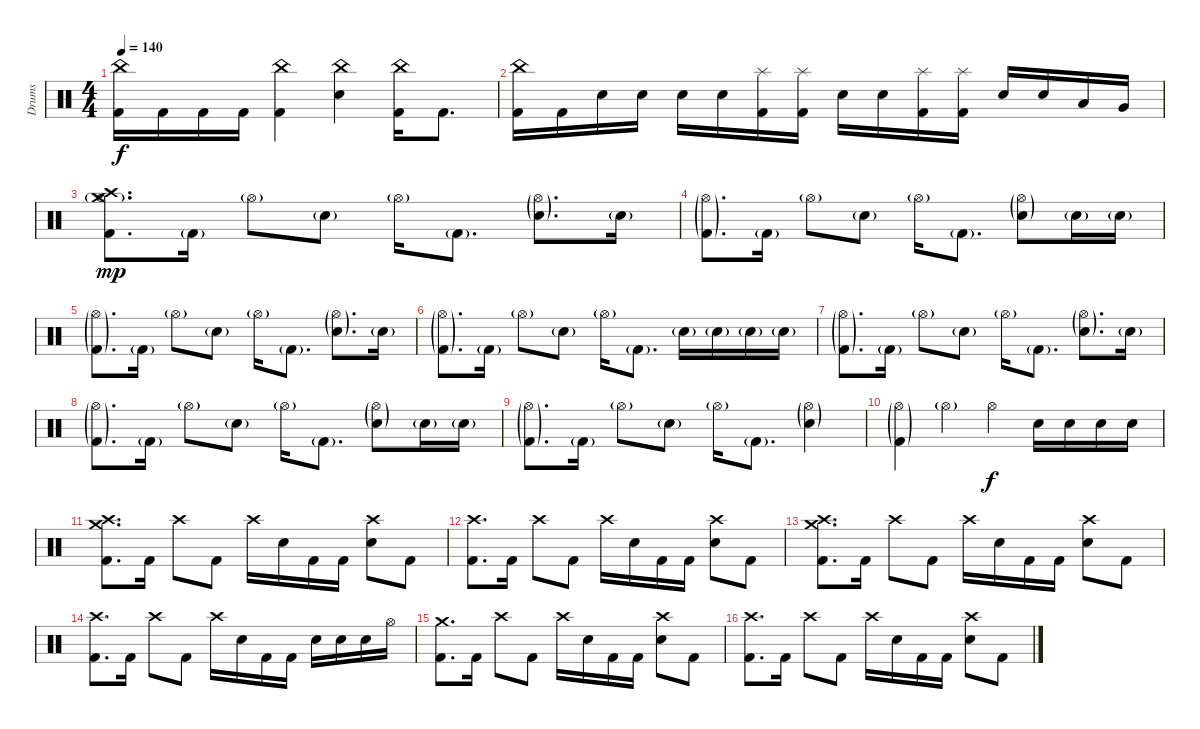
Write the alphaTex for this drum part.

\track ("Drums" "Drums") {instrument percussion}
\staff {score}
\articulation defaults
\ts (4 4)
\tempo 140
\clef neutral
\ks c
("China (hit)" "Kick (hit) 2").16{dy f} "Kick (hit) 2".16 "Kick (hit) 2".16 "Kick (hit) 2".16 ("China (hit)" "Kick (hit) 2").4 ("China (hit)" "Electric Snare (hit)").4 ("China (hit)" "Kick (hit) 2").16 "Kick (hit) 2".8{d} |
("China (hit)" "Kick (hit) 2").16 "Kick (hit) 2".16 "Electric Snare (hit)".16 "Electric Snare (hit)".16 "Electric Snare (hit)".16 "Electric Snare (hit)".16 ("Splash (hit)" "Kick (hit) 2").16 ("Splash (hit)" "Kick (hit) 2").16 "Electric Snare (hit)".16 "Electric Snare (hit)".16 ("Splash (hit)" "Kick (hit) 2").16 ("Splash (hit)" "Kick (hit) 2").16 "Electric Snare (hit)".16 "Electric Snare (hit)".16 "Low Tom (hit)".16 "Very Low Tom (hit)".16 |
("Hi-Hat (open)"{g} "Crash medium (hit)" "Crash high (hit)" "Kick (hit) 2").8{d dy mp} "Kick (hit) 2"{g}.16 "Hi-Hat (open)"{g}.8 "Electric Snare (hit)"{g}.8 "Hi-Hat (open)"{g}.16 "Kick (hit) 2"{g}.8{d} ("Hi-Hat (open)"{g} "Electric Snare (hit)"{g}).8{d} "Electric Snare (hit)"{g}.16 |
("Hi-Hat (open)"{g} "Kick (hit) 2"{g}).8{d} "Kick (hit) 2"{g}.16 "Hi-Hat (open)"{g}.8 "Electric Snare (hit)"{g}.8 "Hi-Hat (open)"{g}.16 "Kick (hit) 2"{g}.8{d} ("Hi-Hat (open)"{g} "Electric Snare (hit)"{g}).8 "Electric Snare (hit)"{g}.16 "Electric Snare (hit)"{g}.16 |
("Hi-Hat (open)"{g} "Kick (hit) 2"{g}).8{d} "Kick (hit) 2"{g}.16 "Hi-Hat (open)"{g}.8 "Electric Snare (hit)"{g}.8 "Hi-Hat (open)"{g}.16 "Kick (hit) 2"{g}.8{d} ("Hi-Hat (open)"{g} "Electric Snare (hit)"{g}).8{d} "Electric Snare (hit)"{g}.16 |
("Hi-Hat (open)"{g} "Kick (hit) 2"{g}).8{d} "Kick (hit) 2"{g}.16 "Hi-Hat (open)"{g}.8 "Electric Snare (hit)"{g}.8 "Hi-Hat (open)"{g}.16 "Kick (hit) 2"{g}.8{d} "Electric Snare (hit)"{g}.16 "Electric Snare (hit)"{g}.16 "Electric Snare (hit)"{g}.16 "Electric Snare (hit)"{g}.16 |
("Hi-Hat (open)"{g} "Kick (hit) 2"{g}).8{d} "Kick (hit) 2"{g}.16 "Hi-Hat (open)"{g}.8 "Electric Snare (hit)"{g}.8 "Hi-Hat (open)"{g}.16 "Kick (hit) 2"{g}.8{d} ("Hi-Hat (open)"{g} "Electric Snare (hit)"{g}).8{d} "Electric Snare (hit)"{g}.16 |
("Hi-Hat (open)"{g} "Kick (hit) 2"{g}).8{d} "Kick (hit) 2"{g}.16 "Hi-Hat (open)"{g}.8 "Electric Snare (hit)"{g}.8 "Hi-Hat (open)"{g}.16 "Kick (hit) 2"{g}.8{d} ("Hi-Hat (open)"{g} "Electric Snare (hit)"{g}).8 "Electric Snare (hit)"{g}.16 "Electric Snare (hit)"{g}.16 |
("Hi-Hat (open)"{g} "Kick (hit) 2"{g}).8{d} "Kick (hit) 2"{g}.16 "Hi-Hat (open)"{g}.8 "Electric Snare (hit)"{g}.8 "Hi-Hat (open)"{g}.16 "Kick (hit) 2"{g}.8{d} ("Hi-Hat (open)"{g} "Electric Snare (hit)"{g}).4 |
("Hi-Hat (open)"{g} "Kick (hit) 2"{g}).4 "Hi-Hat (open)"{g}.4 "Hi-Hat (open)".4{dy f} "Electric Snare (hit)".16 "Electric Snare (hit)".16 "Electric Snare (hit)".16 "Electric Snare (hit)".16 |
("Crash medium (hit)" "Crash high (hit)" "Kick (hit) 2").8{d} "Kick (hit) 2".16 "Crash high (hit)".8 "Kick (hit) 2".8 "Crash high (hit)".16 "Electric Snare (hit)".16 "Kick (hit) 2".16 "Kick (hit) 2".16 ("Crash high (hit)" "Electric Snare (hit)").8 "Kick (hit) 2".8 |
("Crash high (hit)" "Kick (hit) 2").8{d} "Kick (hit) 2".16 "Crash high (hit)".8 "Kick (hit) 2".8 "Crash high (hit)".16 "Electric Snare (hit)".16 "Kick (hit) 2".16 "Kick (hit) 2".16 ("Crash high (hit)" "Electric Snare (hit)").8 "Kick (hit) 2".8 |
("Crash medium (hit)" "Crash high (hit)" "Kick (hit) 2").8{d} "Kick (hit) 2".16 "Crash high (hit)".8 "Kick (hit) 2".8 "Crash high (hit)".16 "Electric Snare (hit)".16 "Kick (hit) 2".16 "Kick (hit) 2".16 ("Crash high (hit)" "Electric Snare (hit)").8 "Kick (hit) 2".8 |
("Crash high (hit)" "Kick (hit) 2").8{d} "Kick (hit) 2".16 "Crash high (hit)".8 "Kick (hit) 2".8 "Crash high (hit)".16 "Electric Snare (hit)".16 "Kick (hit) 2".16 "Kick (hit) 2".16 "Electric Snare (hit)".16 "Electric Snare (hit)".16 "Electric Snare (hit)".16 "Hi-Hat (open)".16 |
("Crash medium (hit)" "Kick (hit) 2").8{d} "Kick (hit) 2".16 "Crash high (hit)".8 "Kick (hit) 2".8 "Crash high (hit)".16 "Electric Snare (hit)".16 "Kick (hit) 2".16 "Kick (hit) 2".16 ("Crash high (hit)" "Electric Snare (hit)").8 "Kick (hit) 2".8 |
("Crash high (hit)" "Kick (hit) 2").8{d} "Kick (hit) 2".16 "Crash high (hit)".8 "Kick (hit) 2".8 "Crash high (hit)".16 "Electric Snare (hit)".16 "Kick (hit) 2".16 "Kick (hit) 2".16 ("Crash high (hit)" "Electric Snare (hit)").8 "Kick (hit) 2".8
